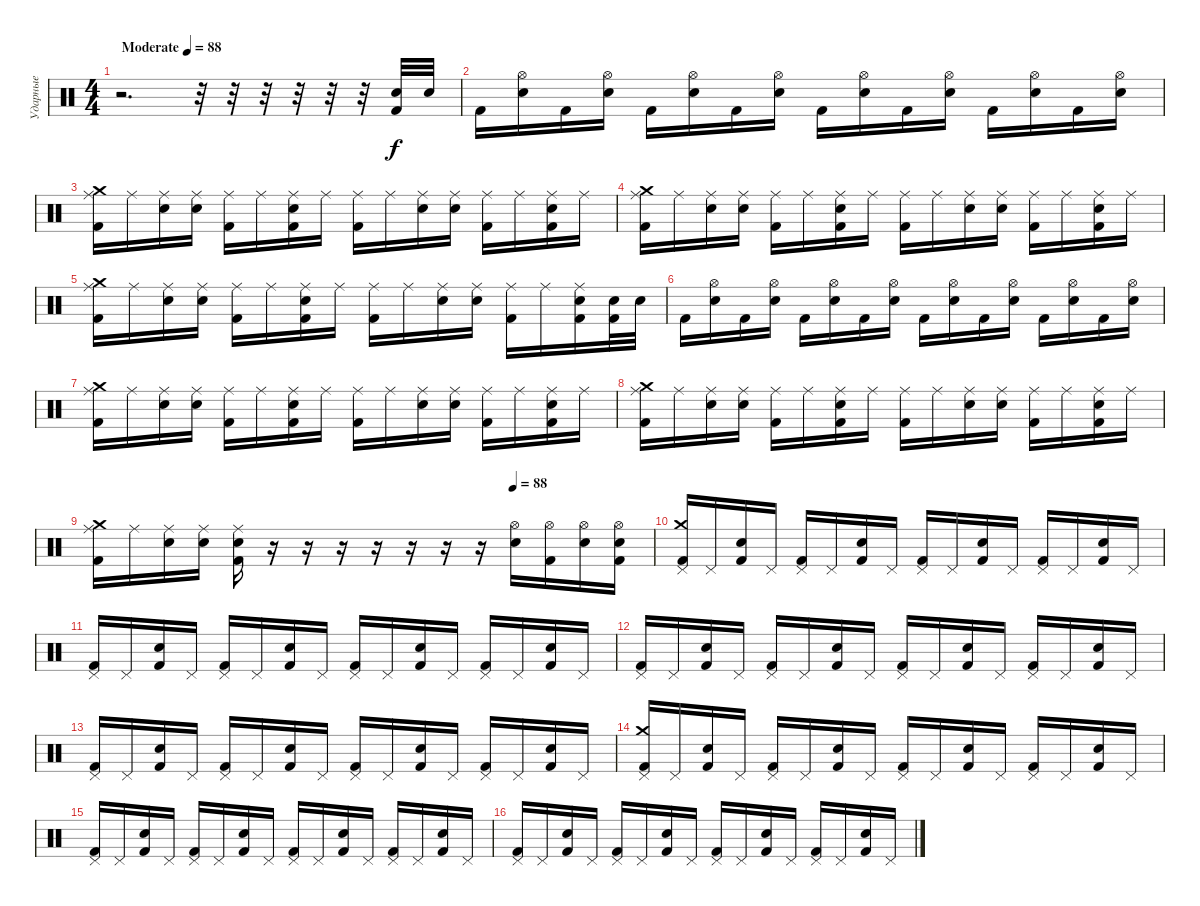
\track ("Ударные" "Ударные") {instrument percussion}
\staff {score}
\articulation defaults
\ts (4 4)
\tempo (88 "Moderate")
\clef neutral
\ks c
r.2{d dy f} r.32 r.32 r.32 r.32 r.32 r.32 ("Kick (hit) 2" "Electric Snare (hit)").32 "Electric Snare (hit)".32 |
"Kick (hit) 2".16 ("Electric Snare (hit)" "Hi-Hat (open)").16 "Kick (hit) 2".16 ("Electric Snare (hit)" "Hi-Hat (open)").16 "Kick (hit) 2".16 ("Electric Snare (hit)" "Hi-Hat (open)").16 "Kick (hit) 2".16 ("Electric Snare (hit)" "Hi-Hat (open)").16 "Kick (hit) 2".16 ("Electric Snare (hit)" "Hi-Hat (open)").16 "Kick (hit) 2".16 ("Electric Snare (hit)" "Hi-Hat (open)").16 "Kick (hit) 2".16 ("Electric Snare (hit)" "Hi-Hat (open)").16 "Kick (hit) 2".16 ("Electric Snare (hit)" "Hi-Hat (open)").16 |
("Kick (hit) 2" "Ride (middle)" "Crash medium (hit)").16 "Ride (middle)".16 ("Ride (middle)" "Electric Snare (hit)").16 ("Ride (middle)" "Electric Snare (hit)").16 ("Kick (hit) 2" "Ride (middle)").16 "Ride (middle)".16 ("Kick (hit) 2" "Ride (middle)" "Electric Snare (hit)").16 "Ride (middle)".16 ("Kick (hit) 2" "Ride (middle)").16 "Ride (middle)".16 ("Ride (middle)" "Electric Snare (hit)").16 ("Ride (middle)" "Electric Snare (hit)").16 ("Kick (hit) 2" "Ride (middle)").16 "Ride (middle)".16 ("Kick (hit) 2" "Ride (middle)" "Electric Snare (hit)").16 "Ride (middle)".16 |
("Kick (hit) 2" "Ride (middle)" "Crash medium (hit)").16 "Ride (middle)".16 ("Ride (middle)" "Electric Snare (hit)").16 ("Ride (middle)" "Electric Snare (hit)").16 ("Kick (hit) 2" "Ride (middle)").16 "Ride (middle)".16 ("Kick (hit) 2" "Ride (middle)" "Electric Snare (hit)").16 "Ride (middle)".16 ("Kick (hit) 2" "Ride (middle)").16 "Ride (middle)".16 ("Ride (middle)" "Electric Snare (hit)").16 ("Ride (middle)" "Electric Snare (hit)").16 ("Kick (hit) 2" "Ride (middle)").16 "Ride (middle)".16 ("Kick (hit) 2" "Ride (middle)" "Electric Snare (hit)").16 "Ride (middle)".16 |
("Kick (hit) 2" "Ride (middle)" "Crash medium (hit)").16 "Ride (middle)".16 ("Ride (middle)" "Electric Snare (hit)").16 ("Ride (middle)" "Electric Snare (hit)").16 ("Kick (hit) 2" "Ride (middle)").16 "Ride (middle)".16 ("Kick (hit) 2" "Ride (middle)" "Electric Snare (hit)").16 "Ride (middle)".16 ("Kick (hit) 2" "Ride (middle)").16 "Ride (middle)".16 ("Ride (middle)" "Electric Snare (hit)").16 ("Ride (middle)" "Electric Snare (hit)").16 ("Kick (hit) 2" "Ride (middle)").16 "Ride (middle)".16 ("Kick (hit) 2" "Ride (middle)" "Electric Snare (hit)").16 ("Kick (hit) 2" "Electric Snare (hit)").32 "Electric Snare (hit)".32 |
"Kick (hit) 2".16 ("Electric Snare (hit)" "Hi-Hat (open)").16 "Kick (hit) 2".16 ("Electric Snare (hit)" "Hi-Hat (open)").16 "Kick (hit) 2".16 ("Electric Snare (hit)" "Hi-Hat (open)").16 "Kick (hit) 2".16 ("Electric Snare (hit)" "Hi-Hat (open)").16 "Kick (hit) 2".16 ("Electric Snare (hit)" "Hi-Hat (open)").16 "Kick (hit) 2".16 ("Electric Snare (hit)" "Hi-Hat (open)").16 "Kick (hit) 2".16 ("Electric Snare (hit)" "Hi-Hat (open)").16 "Kick (hit) 2".16 ("Electric Snare (hit)" "Hi-Hat (open)").16 |
("Kick (hit) 2" "Ride (middle)" "Crash medium (hit)").16 "Ride (middle)".16 ("Ride (middle)" "Electric Snare (hit)").16 ("Ride (middle)" "Electric Snare (hit)").16 ("Kick (hit) 2" "Ride (middle)").16 "Ride (middle)".16 ("Kick (hit) 2" "Ride (middle)" "Electric Snare (hit)").16 "Ride (middle)".16 ("Kick (hit) 2" "Ride (middle)").16 "Ride (middle)".16 ("Ride (middle)" "Electric Snare (hit)").16 ("Ride (middle)" "Electric Snare (hit)").16 ("Kick (hit) 2" "Ride (middle)").16 "Ride (middle)".16 ("Kick (hit) 2" "Ride (middle)" "Electric Snare (hit)").16 "Ride (middle)".16 |
("Kick (hit) 2" "Ride (middle)" "Crash medium (hit)").16 "Ride (middle)".16 ("Ride (middle)" "Electric Snare (hit)").16 ("Ride (middle)" "Electric Snare (hit)").16 ("Kick (hit) 2" "Ride (middle)").16 "Ride (middle)".16 ("Kick (hit) 2" "Ride (middle)" "Electric Snare (hit)").16 "Ride (middle)".16 ("Kick (hit) 2" "Ride (middle)").16 "Ride (middle)".16 ("Ride (middle)" "Electric Snare (hit)").16 ("Ride (middle)" "Electric Snare (hit)").16 ("Kick (hit) 2" "Ride (middle)").16 "Ride (middle)".16 ("Kick (hit) 2" "Ride (middle)" "Electric Snare (hit)").16 "Ride (middle)".16 |
\tempo (88 0.75)
("Kick (hit) 2" "Ride (middle)" "Crash medium (hit)").16 "Ride (middle)".16 ("Ride (middle)" "Electric Snare (hit)").16 ("Ride (middle)" "Electric Snare (hit)").16 ("Kick (hit) 2" "Electric Snare (hit)" "Ride (middle)").16 r.16 r.16 r.16 r.16 r.16 r.16 r.16 ("Electric Snare (hit)" "Hi-Hat (open)").16 ("Kick (hit) 2" "Hi-Hat (open)").16 ("Electric Snare (hit)" "Hi-Hat (open)").16 ("Kick (hit) 2" "Electric Snare (hit)" "Hi-Hat (open)").16 |
("Kick (hit) 2" "Pedal Hi-Hat (hit)" "Crash medium (hit)").16 "Pedal Hi-Hat (hit)".16 ("Kick (hit) 2" "Electric Snare (hit)").16 "Pedal Hi-Hat (hit)".16 ("Kick (hit) 2" "Pedal Hi-Hat (hit)").16 "Pedal Hi-Hat (hit)".16 ("Kick (hit) 2" "Electric Snare (hit)").16 "Pedal Hi-Hat (hit)".16 ("Kick (hit) 2" "Pedal Hi-Hat (hit)").16 "Pedal Hi-Hat (hit)".16 ("Kick (hit) 2" "Electric Snare (hit)").16 "Pedal Hi-Hat (hit)".16 ("Kick (hit) 2" "Pedal Hi-Hat (hit)").16 "Pedal Hi-Hat (hit)".16 ("Kick (hit) 2" "Electric Snare (hit)").16 "Pedal Hi-Hat (hit)".16 |
("Kick (hit) 2" "Pedal Hi-Hat (hit)").16 "Pedal Hi-Hat (hit)".16 ("Kick (hit) 2" "Electric Snare (hit)").16 "Pedal Hi-Hat (hit)".16 ("Kick (hit) 2" "Pedal Hi-Hat (hit)").16 "Pedal Hi-Hat (hit)".16 ("Kick (hit) 2" "Electric Snare (hit)").16 "Pedal Hi-Hat (hit)".16 ("Kick (hit) 2" "Pedal Hi-Hat (hit)").16 "Pedal Hi-Hat (hit)".16 ("Kick (hit) 2" "Electric Snare (hit)").16 "Pedal Hi-Hat (hit)".16 ("Kick (hit) 2" "Pedal Hi-Hat (hit)").16 "Pedal Hi-Hat (hit)".16 ("Kick (hit) 2" "Electric Snare (hit)").16 "Pedal Hi-Hat (hit)".16 |
("Kick (hit) 2" "Pedal Hi-Hat (hit)").16 "Pedal Hi-Hat (hit)".16 ("Kick (hit) 2" "Electric Snare (hit)").16 "Pedal Hi-Hat (hit)".16 ("Kick (hit) 2" "Pedal Hi-Hat (hit)").16 "Pedal Hi-Hat (hit)".16 ("Kick (hit) 2" "Electric Snare (hit)").16 "Pedal Hi-Hat (hit)".16 ("Kick (hit) 2" "Pedal Hi-Hat (hit)").16 "Pedal Hi-Hat (hit)".16 ("Kick (hit) 2" "Electric Snare (hit)").16 "Pedal Hi-Hat (hit)".16 ("Kick (hit) 2" "Pedal Hi-Hat (hit)").16 "Pedal Hi-Hat (hit)".16 ("Kick (hit) 2" "Electric Snare (hit)").16 "Pedal Hi-Hat (hit)".16 |
("Kick (hit) 2" "Pedal Hi-Hat (hit)").16 "Pedal Hi-Hat (hit)".16 ("Kick (hit) 2" "Electric Snare (hit)").16 "Pedal Hi-Hat (hit)".16 ("Kick (hit) 2" "Pedal Hi-Hat (hit)").16 "Pedal Hi-Hat (hit)".16 ("Kick (hit) 2" "Electric Snare (hit)").16 "Pedal Hi-Hat (hit)".16 ("Kick (hit) 2" "Pedal Hi-Hat (hit)").16 "Pedal Hi-Hat (hit)".16 ("Kick (hit) 2" "Electric Snare (hit)").16 "Pedal Hi-Hat (hit)".16 ("Kick (hit) 2" "Pedal Hi-Hat (hit)").16 "Pedal Hi-Hat (hit)".16 ("Kick (hit) 2" "Electric Snare (hit)").16 "Pedal Hi-Hat (hit)".16 |
("Kick (hit) 2" "Pedal Hi-Hat (hit)" "Crash medium (hit)").16 "Pedal Hi-Hat (hit)".16 ("Kick (hit) 2" "Electric Snare (hit)").16 "Pedal Hi-Hat (hit)".16 ("Kick (hit) 2" "Pedal Hi-Hat (hit)").16 "Pedal Hi-Hat (hit)".16 ("Kick (hit) 2" "Electric Snare (hit)").16 "Pedal Hi-Hat (hit)".16 ("Kick (hit) 2" "Pedal Hi-Hat (hit)").16 "Pedal Hi-Hat (hit)".16 ("Kick (hit) 2" "Electric Snare (hit)").16 "Pedal Hi-Hat (hit)".16 ("Kick (hit) 2" "Pedal Hi-Hat (hit)").16 "Pedal Hi-Hat (hit)".16 ("Kick (hit) 2" "Electric Snare (hit)").16 "Pedal Hi-Hat (hit)".16 |
("Kick (hit) 2" "Pedal Hi-Hat (hit)").16 "Pedal Hi-Hat (hit)".16 ("Kick (hit) 2" "Electric Snare (hit)").16 "Pedal Hi-Hat (hit)".16 ("Kick (hit) 2" "Pedal Hi-Hat (hit)").16 "Pedal Hi-Hat (hit)".16 ("Kick (hit) 2" "Electric Snare (hit)").16 "Pedal Hi-Hat (hit)".16 ("Kick (hit) 2" "Pedal Hi-Hat (hit)").16 "Pedal Hi-Hat (hit)".16 ("Kick (hit) 2" "Electric Snare (hit)").16 "Pedal Hi-Hat (hit)".16 ("Kick (hit) 2" "Pedal Hi-Hat (hit)").16 "Pedal Hi-Hat (hit)".16 ("Kick (hit) 2" "Electric Snare (hit)").16 "Pedal Hi-Hat (hit)".16 |
("Kick (hit) 2" "Pedal Hi-Hat (hit)").16 "Pedal Hi-Hat (hit)".16 ("Kick (hit) 2" "Electric Snare (hit)").16 "Pedal Hi-Hat (hit)".16 ("Kick (hit) 2" "Pedal Hi-Hat (hit)").16 "Pedal Hi-Hat (hit)".16 ("Kick (hit) 2" "Electric Snare (hit)").16 "Pedal Hi-Hat (hit)".16 ("Kick (hit) 2" "Pedal Hi-Hat (hit)").16 "Pedal Hi-Hat (hit)".16 ("Kick (hit) 2" "Electric Snare (hit)").16 "Pedal Hi-Hat (hit)".16 ("Kick (hit) 2" "Pedal Hi-Hat (hit)").16 "Pedal Hi-Hat (hit)".16 ("Kick (hit) 2" "Electric Snare (hit)").16 "Pedal Hi-Hat (hit)".16
